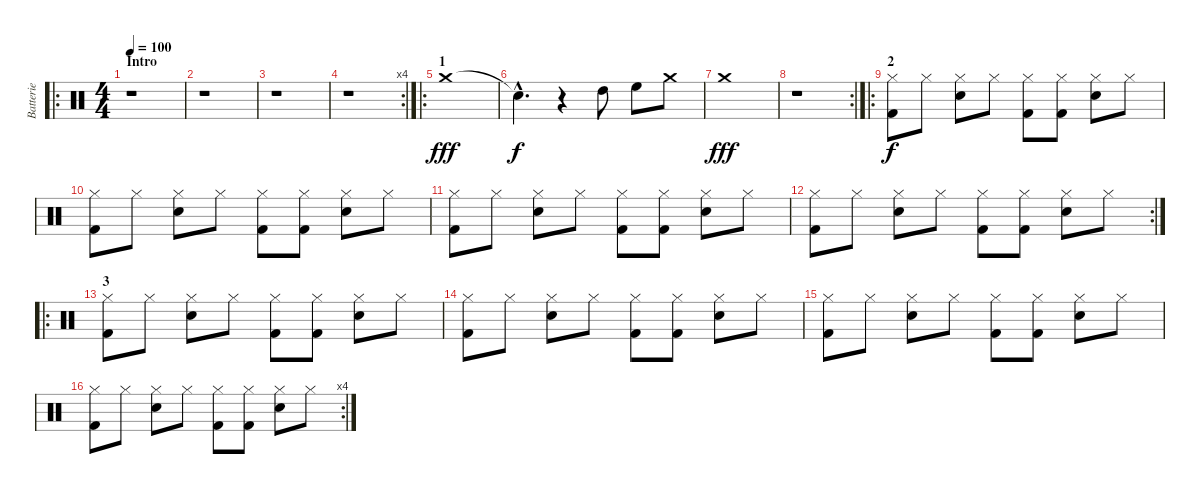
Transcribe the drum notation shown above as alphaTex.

\track ("Batterie" "Batterie") {instrument percussion}
\staff {score}
\articulation defaults
\ro
\ts (4 4)
\section ("" "Intro")
\tempo 100
\clef neutral
\ks c
r.1{dy fff} |
r.1 |
r.1 |
\rc 4
r.1 |
\ro
\section ("" "1")
"Crash medium (hit)".1 |
"Snare (hit)"{hac t}.4{d dy f} r.4 "High Tom (hit)".8 "High Floor Tom (hit)".8 "Crash medium (hit)".8 |
"Crash medium (hit)".1{dy fff} |
\rc 2
r.1 |
\ro
\section ("" "2")
("Hi-Hat (closed)" "Kick (hit) 2").8{dy f} "Hi-Hat (closed)".8 ("Hi-Hat (closed)" "Electric Snare (hit)").8 "Hi-Hat (closed)".8 ("Hi-Hat (closed)" "Kick (hit) 2").8 ("Hi-Hat (closed)" "Kick (hit) 2").8 ("Hi-Hat (closed)" "Electric Snare (hit)").8 "Hi-Hat (closed)".8 |
("Hi-Hat (closed)" "Kick (hit) 2").8 "Hi-Hat (closed)".8 ("Hi-Hat (closed)" "Electric Snare (hit)").8 "Hi-Hat (closed)".8 ("Hi-Hat (closed)" "Kick (hit) 2").8 ("Hi-Hat (closed)" "Kick (hit) 2").8 ("Hi-Hat (closed)" "Electric Snare (hit)").8 "Hi-Hat (closed)".8 |
("Hi-Hat (closed)" "Kick (hit) 2").8 "Hi-Hat (closed)".8 ("Hi-Hat (closed)" "Electric Snare (hit)").8 "Hi-Hat (closed)".8 ("Hi-Hat (closed)" "Kick (hit) 2").8 ("Hi-Hat (closed)" "Kick (hit) 2").8 ("Hi-Hat (closed)" "Electric Snare (hit)").8 "Hi-Hat (closed)".8 |
\rc 2
("Hi-Hat (closed)" "Kick (hit) 2").8 "Hi-Hat (closed)".8 ("Hi-Hat (closed)" "Electric Snare (hit)").8 "Hi-Hat (closed)".8 ("Hi-Hat (closed)" "Kick (hit) 2").8 ("Hi-Hat (closed)" "Kick (hit) 2").8 ("Hi-Hat (closed)" "Electric Snare (hit)").8 "Hi-Hat (closed)".8 |
\ro
\section ("" "3")
("Hi-Hat (closed)" "Kick (hit) 2").8 "Hi-Hat (closed)".8 ("Hi-Hat (closed)" "Electric Snare (hit)").8 "Hi-Hat (closed)".8 ("Hi-Hat (closed)" "Kick (hit) 2").8 ("Hi-Hat (closed)" "Kick (hit) 2").8 ("Hi-Hat (closed)" "Electric Snare (hit)").8 "Hi-Hat (closed)".8 |
("Hi-Hat (closed)" "Kick (hit) 2").8 "Hi-Hat (closed)".8 ("Hi-Hat (closed)" "Electric Snare (hit)").8 "Hi-Hat (closed)".8 ("Hi-Hat (closed)" "Kick (hit) 2").8 ("Hi-Hat (closed)" "Kick (hit) 2").8 ("Hi-Hat (closed)" "Electric Snare (hit)").8 "Hi-Hat (closed)".8 |
("Hi-Hat (closed)" "Kick (hit) 2").8 "Hi-Hat (closed)".8 ("Hi-Hat (closed)" "Electric Snare (hit)").8 "Hi-Hat (closed)".8 ("Hi-Hat (closed)" "Kick (hit) 2").8 ("Hi-Hat (closed)" "Kick (hit) 2").8 ("Hi-Hat (closed)" "Electric Snare (hit)").8 "Hi-Hat (closed)".8 |
\rc 4
("Hi-Hat (closed)" "Kick (hit) 2").8 "Hi-Hat (closed)".8 ("Hi-Hat (closed)" "Electric Snare (hit)").8 "Hi-Hat (closed)".8 ("Hi-Hat (closed)" "Kick (hit) 2").8 ("Hi-Hat (closed)" "Kick (hit) 2").8 ("Hi-Hat (closed)" "Electric Snare (hit)").8 "Hi-Hat (closed)".8
